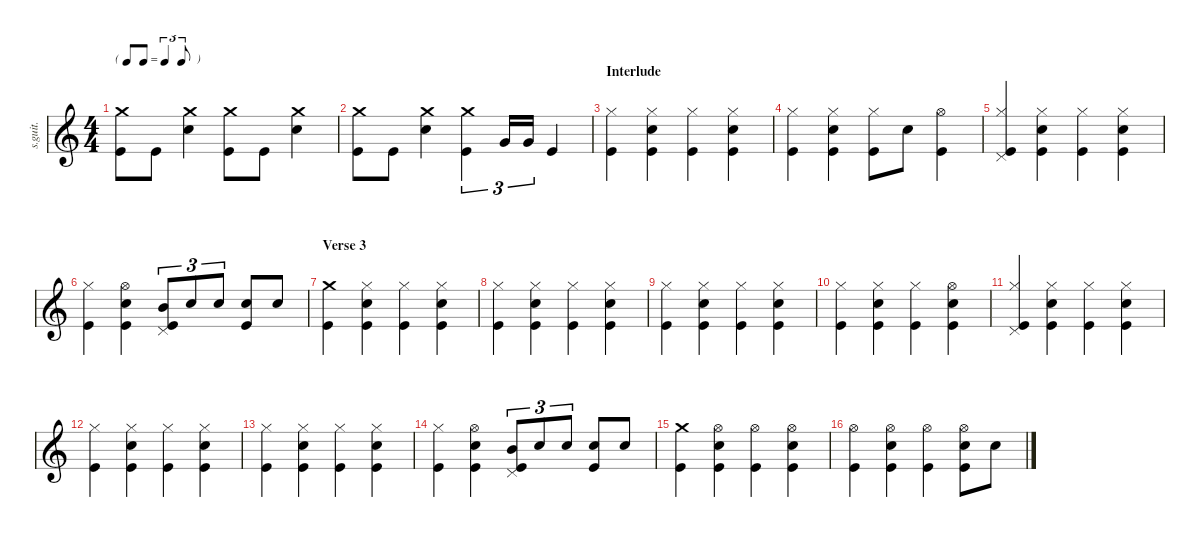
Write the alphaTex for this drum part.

\defaultSystemsLayout 4
\hideDynamics
\bracketExtendMode nobrackets
\track ("Dave Grohl" "s.guit.") {instrument percussion}
\staff {score}
\articulation defaults
\ts (4 4)
\tf triplet8th
\tempo (171 hide)
\clef g2
\ks c
("Kick (hit)" "Crash medium (hit)").8{lyrics (0 "") lyrics (1 "") lyrics (2 "") lyrics (3 "") lyrics (4 "") dy mf} "Kick (hit)".8{lyrics (0 "") lyrics (1 "") lyrics (2 "") lyrics (3 "") lyrics (4 "")} ("Crash medium (hit)" "Snare (hit) 2").4{lyrics (0 "") lyrics (1 "") lyrics (2 "") lyrics (3 "") lyrics (4 "")} ("Kick (hit)" "Crash medium (hit)").8{lyrics (0 "") lyrics (1 "") lyrics (2 "") lyrics (3 "") lyrics (4 "")} "Kick (hit)".8{lyrics (0 "") lyrics (1 "") lyrics (2 "") lyrics (3 "") lyrics (4 "")} ("Crash medium (hit)" "Snare (hit) 2").4{lyrics (0 "") lyrics (1 "") lyrics (2 "") lyrics (3 "") lyrics (4 "")} |
("Kick (hit)" "Crash medium (hit)").8{lyrics (0 "") lyrics (1 "") lyrics (2 "") lyrics (3 "") lyrics (4 "")} "Kick (hit)".8{lyrics (0 "") lyrics (1 "") lyrics (2 "") lyrics (3 "") lyrics (4 "")} ("Crash medium (hit)" "Snare (hit) 2").4{lyrics (0 "") lyrics (1 "") lyrics (2 "") lyrics (3 "") lyrics (4 "")} ("Kick (hit)" "Crash medium (hit)").4{tu (3 2) lyrics (0 "") lyrics (1 "") lyrics (2 "") lyrics (3 "") lyrics (4 "")} "Very Low Tom (hit)".16{tu (3 2) lyrics (0 "") lyrics (1 "") lyrics (2 "") lyrics (3 "") lyrics (4 "")} "Very Low Tom (hit)".16{tu (3 2) lyrics (0 "") lyrics (1 "") lyrics (2 "") lyrics (3 "") lyrics (4 "")} "Kick (hit)".4{lyrics (0 "") lyrics (1 "") lyrics (2 "") lyrics (3 "") lyrics (4 "")} |
\section ("" "Interlude")
("Kick (hit)" "Hi-Hat (closed)").4{lyrics (0 "") lyrics (1 "") lyrics (2 "") lyrics (3 "") lyrics (4 "")} ("Kick (hit)" "Snare (hit) 2" "Hi-Hat (closed)").4{lyrics (0 "") lyrics (1 "") lyrics (2 "") lyrics (3 "") lyrics (4 "")} ("Kick (hit)" "Hi-Hat (closed)").4{lyrics (0 "") lyrics (1 "") lyrics (2 "") lyrics (3 "") lyrics (4 "")} ("Kick (hit)" "Snare (hit) 2" "Hi-Hat (closed)").4{lyrics (0 "") lyrics (1 "") lyrics (2 "") lyrics (3 "") lyrics (4 "")} |
("Kick (hit)" "Hi-Hat (closed)").4{lyrics (0 "") lyrics (1 "") lyrics (2 "") lyrics (3 "") lyrics (4 "")} ("Kick (hit)" "Snare (hit) 2" "Hi-Hat (closed)").4{lyrics (0 "") lyrics (1 "") lyrics (2 "") lyrics (3 "") lyrics (4 "")} ("Kick (hit)" "Hi-Hat (closed)").8{lyrics (0 "") lyrics (1 "") lyrics (2 "") lyrics (3 "") lyrics (4 "")} "Snare (hit) 2".8{lyrics (0 "") lyrics (1 "") lyrics (2 "") lyrics (3 "") lyrics (4 "")} ("Kick (hit)" "Hi-Hat (open)").4{lyrics (0 "") lyrics (1 "") lyrics (2 "") lyrics (3 "") lyrics (4 "")} |
("Kick (hit)" "Hi-Hat (closed)" "Pedal Hi-Hat (hit)").4{lyrics (0 "") lyrics (1 "") lyrics (2 "") lyrics (3 "") lyrics (4 "")} ("Kick (hit)" "Snare (hit) 2" "Hi-Hat (closed)").4{lyrics (0 "") lyrics (1 "") lyrics (2 "") lyrics (3 "") lyrics (4 "")} ("Kick (hit)" "Hi-Hat (closed)").4{lyrics (0 "") lyrics (1 "") lyrics (2 "") lyrics (3 "") lyrics (4 "")} ("Kick (hit)" "Snare (hit) 2" "Hi-Hat (closed)").4{lyrics (0 "") lyrics (1 "") lyrics (2 "") lyrics (3 "") lyrics (4 "")} |
("Kick (hit)" "Hi-Hat (closed)").4{lyrics (0 "") lyrics (1 "") lyrics (2 "") lyrics (3 "") lyrics (4 "")} ("Kick (hit)" "Snare (hit) 2" "Hi-Hat (open)").4{lyrics (0 "") lyrics (1 "") lyrics (2 "") lyrics (3 "") lyrics (4 "")} ("Kick (hit)" "Pedal Hi-Hat (hit)" "Mid Tom (hit)").8{tu (3 2) lyrics (0 "") lyrics (1 "") lyrics (2 "") lyrics (3 "") lyrics (4 "")} "Snare (hit) 2".8{tu (3 2) lyrics (0 "") lyrics (1 "") lyrics (2 "") lyrics (3 "") lyrics (4 "")} "Snare (hit) 2".8{tu (3 2) lyrics (0 "") lyrics (1 "") lyrics (2 "") lyrics (3 "") lyrics (4 "")} ("Kick (hit)" "Snare (hit) 2").8{lyrics (0 "") lyrics (1 "") lyrics (2 "") lyrics (3 "") lyrics (4 "")} "Snare (hit) 2".8{lyrics (0 "") lyrics (1 "") lyrics (2 "") lyrics (3 "") lyrics (4 "")} |
\section ("" "Verse 3")
("Kick (hit)" "Crash medium (hit)").4{lyrics (0 "") lyrics (1 "") lyrics (2 "") lyrics (3 "") lyrics (4 "")} ("Kick (hit)" "Snare (hit) 2" "Hi-Hat (closed)").4{lyrics (0 "") lyrics (1 "") lyrics (2 "") lyrics (3 "") lyrics (4 "")} ("Kick (hit)" "Hi-Hat (closed)").4{lyrics (0 "") lyrics (1 "") lyrics (2 "") lyrics (3 "") lyrics (4 "")} ("Kick (hit)" "Snare (hit) 2" "Hi-Hat (closed)").4{lyrics (0 "") lyrics (1 "") lyrics (2 "") lyrics (3 "") lyrics (4 "")} |
("Kick (hit)" "Hi-Hat (closed)").4{lyrics (0 "") lyrics (1 "") lyrics (2 "") lyrics (3 "") lyrics (4 "")} ("Kick (hit)" "Snare (hit) 2" "Hi-Hat (closed)").4{lyrics (0 "") lyrics (1 "") lyrics (2 "") lyrics (3 "") lyrics (4 "")} ("Kick (hit)" "Hi-Hat (closed)").4{lyrics (0 "") lyrics (1 "") lyrics (2 "") lyrics (3 "") lyrics (4 "")} ("Kick (hit)" "Snare (hit) 2" "Hi-Hat (closed)").4{lyrics (0 "") lyrics (1 "") lyrics (2 "") lyrics (3 "") lyrics (4 "")} |
("Kick (hit)" "Hi-Hat (closed)").4{lyrics (0 "") lyrics (1 "") lyrics (2 "") lyrics (3 "") lyrics (4 "")} ("Kick (hit)" "Snare (hit) 2" "Hi-Hat (closed)").4{lyrics (0 "") lyrics (1 "") lyrics (2 "") lyrics (3 "") lyrics (4 "")} ("Kick (hit)" "Hi-Hat (closed)").4{lyrics (0 "") lyrics (1 "") lyrics (2 "") lyrics (3 "") lyrics (4 "")} ("Kick (hit)" "Snare (hit) 2" "Hi-Hat (closed)").4{lyrics (0 "") lyrics (1 "") lyrics (2 "") lyrics (3 "") lyrics (4 "")} |
("Kick (hit)" "Hi-Hat (closed)").4{lyrics (0 "") lyrics (1 "") lyrics (2 "") lyrics (3 "") lyrics (4 "")} ("Kick (hit)" "Snare (hit) 2" "Hi-Hat (closed)").4{lyrics (0 "") lyrics (1 "") lyrics (2 "") lyrics (3 "") lyrics (4 "")} ("Kick (hit)" "Hi-Hat (closed)").4{lyrics (0 "") lyrics (1 "") lyrics (2 "") lyrics (3 "") lyrics (4 "")} ("Kick (hit)" "Snare (hit) 2" "Hi-Hat (open)").4{lyrics (0 "") lyrics (1 "") lyrics (2 "") lyrics (3 "") lyrics (4 "")} |
("Kick (hit)" "Hi-Hat (closed)" "Pedal Hi-Hat (hit)").4{lyrics (0 "") lyrics (1 "") lyrics (2 "") lyrics (3 "") lyrics (4 "")} ("Kick (hit)" "Snare (hit) 2" "Hi-Hat (closed)").4{lyrics (0 "") lyrics (1 "") lyrics (2 "") lyrics (3 "") lyrics (4 "")} ("Kick (hit)" "Hi-Hat (closed)").4{lyrics (0 "") lyrics (1 "") lyrics (2 "") lyrics (3 "") lyrics (4 "")} ("Kick (hit)" "Snare (hit) 2" "Hi-Hat (closed)").4{lyrics (0 "") lyrics (1 "") lyrics (2 "") lyrics (3 "") lyrics (4 "")} |
("Kick (hit)" "Hi-Hat (closed)").4{lyrics (0 "") lyrics (1 "") lyrics (2 "") lyrics (3 "") lyrics (4 "")} ("Kick (hit)" "Snare (hit) 2" "Hi-Hat (closed)").4{lyrics (0 "") lyrics (1 "") lyrics (2 "") lyrics (3 "") lyrics (4 "")} ("Kick (hit)" "Hi-Hat (closed)").4{lyrics (0 "") lyrics (1 "") lyrics (2 "") lyrics (3 "") lyrics (4 "")} ("Kick (hit)" "Snare (hit) 2" "Hi-Hat (closed)").4{lyrics (0 "") lyrics (1 "") lyrics (2 "") lyrics (3 "") lyrics (4 "")} |
("Kick (hit)" "Hi-Hat (closed)").4{lyrics (0 "") lyrics (1 "") lyrics (2 "") lyrics (3 "") lyrics (4 "")} ("Kick (hit)" "Snare (hit) 2" "Hi-Hat (closed)").4{lyrics (0 "") lyrics (1 "") lyrics (2 "") lyrics (3 "") lyrics (4 "")} ("Kick (hit)" "Hi-Hat (closed)").4{lyrics (0 "") lyrics (1 "") lyrics (2 "") lyrics (3 "") lyrics (4 "")} ("Kick (hit)" "Snare (hit) 2" "Hi-Hat (closed)").4{lyrics (0 "") lyrics (1 "") lyrics (2 "") lyrics (3 "") lyrics (4 "")} |
("Kick (hit)" "Hi-Hat (closed)").4{lyrics (0 "") lyrics (1 "") lyrics (2 "") lyrics (3 "") lyrics (4 "")} ("Kick (hit)" "Snare (hit) 2" "Hi-Hat (open)").4{lyrics (0 "") lyrics (1 "") lyrics (2 "") lyrics (3 "") lyrics (4 "")} ("Kick (hit)" "Pedal Hi-Hat (hit)" "Mid Tom (hit)").8{tu (3 2) lyrics (0 "") lyrics (1 "") lyrics (2 "") lyrics (3 "") lyrics (4 "")} "Snare (hit) 2".8{tu (3 2) lyrics (0 "") lyrics (1 "") lyrics (2 "") lyrics (3 "") lyrics (4 "")} "Snare (hit) 2".8{tu (3 2) lyrics (0 "") lyrics (1 "") lyrics (2 "") lyrics (3 "") lyrics (4 "")} ("Kick (hit)" "Snare (hit) 2").8{lyrics (0 "") lyrics (1 "") lyrics (2 "") lyrics (3 "") lyrics (4 "")} "Snare (hit) 2".8{lyrics (0 "") lyrics (1 "") lyrics (2 "") lyrics (3 "") lyrics (4 "")} |
("Kick (hit)" "Crash medium (hit)").4{lyrics (0 "") lyrics (1 "") lyrics (2 "") lyrics (3 "") lyrics (4 "")} ("Kick (hit)" "Snare (hit) 2" "Hi-Hat (open)").4{lyrics (0 "") lyrics (1 "") lyrics (2 "") lyrics (3 "") lyrics (4 "")} ("Kick (hit)" "Hi-Hat (open)").4{lyrics (0 "") lyrics (1 "") lyrics (2 "") lyrics (3 "") lyrics (4 "")} ("Kick (hit)" "Snare (hit) 2" "Hi-Hat (open)").4{lyrics (0 "") lyrics (1 "") lyrics (2 "") lyrics (3 "") lyrics (4 "")} |
("Kick (hit)" "Hi-Hat (open)").4{lyrics (0 "") lyrics (1 "") lyrics (2 "") lyrics (3 "") lyrics (4 "")} ("Kick (hit)" "Snare (hit) 2" "Hi-Hat (open)").4{lyrics (0 "") lyrics (1 "") lyrics (2 "") lyrics (3 "") lyrics (4 "")} ("Kick (hit)" "Hi-Hat (open)").4{lyrics (0 "") lyrics (1 "") lyrics (2 "") lyrics (3 "") lyrics (4 "")} ("Kick (hit)" "Snare (hit) 2" "Hi-Hat (open)").8{lyrics (0 "") lyrics (1 "") lyrics (2 "") lyrics (3 "") lyrics (4 "")} "Snare (hit) 2".8{lyrics (0 "") lyrics (1 "") lyrics (2 "") lyrics (3 "") lyrics (4 "")}
